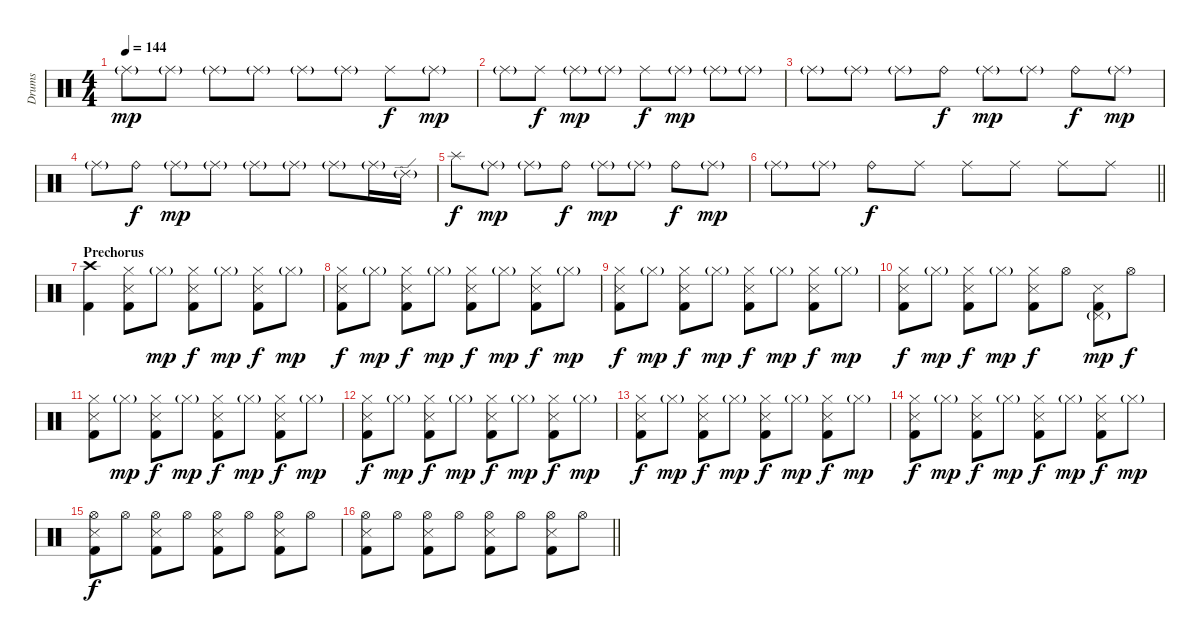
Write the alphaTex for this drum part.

\track ("Drums" "Drums") {instrument percussion}
\staff {score}
\articulation defaults
\ts (4 4)
\tempo 144
\clef neutral
\ks c "Ride (middle)"{g}.8{dy mp} "Ride (middle)"{g}.8 "Ride (middle)"{g}.8 "Ride (middle)"{g}.8 "Ride (middle)"{g}.8 "Ride (middle)"{g}.8 "Ride (middle)".8{dy f} "Ride (middle)"{g}.8{dy mp}
|
"Ride (middle)"{g}.8 "Ride (middle)".8{dy f} "Ride (middle)"{g}.8{dy mp} "Ride (middle)"{g}.8 "Ride (middle)".8{dy f} "Ride (middle)"{g}.8{dy mp} "Ride (middle)"{g}.8 "Ride (middle)"{g}.8 |
"Ride (middle)"{g}.8 "Ride (middle)"{g}.8 "Ride (middle)"{g}.8 "Ride (bell)".8{dy f} "Ride (middle)"{g}.8{dy mp} "Ride (middle)"{g}.8 "Ride (bell)".8{dy f} "Ride (middle)"{g}.8{dy mp} |
"Ride (middle)"{g}.8 "Ride (bell)".8{dy f} "Ride (middle)"{g}.8{dy mp} "Ride (middle)"{g}.8 "Ride (middle)"{g}.8 "Ride (middle)"{g}.8 "Ride (middle)"{g}.8 "Ride (middle)"{g}.16 "Ride (edge) 2"{g}.16 |
"Splash (hit)".8{dy f} "Ride (middle)"{g}.8{dy mp} "Ride (middle)"{g}.8 "Ride (bell)".8{dy f} "Ride (middle)"{g}.8{dy mp} "Ride (middle)"{g}.8 "Ride (bell)".8{dy f} "Ride (middle)"{g}.8{dy mp} |
\barLineRight lightlight "Ride (middle)"{g}.8 "Ride (middle)"{g}.8 "Ride (bell)".8{dy f} "Ride (middle)".8 "Ride (middle)".8 "Ride (middle)".8 "Ride (middle)".8 "Ride (middle)".8
|
\section ("" "Prechorus")
("Crash high (hit)" "Kick (hit) 2").4 ("Hi-Hat (closed)" "Snare (side stick) 3" "Kick (hit) 2").8 "Hi-Hat (closed)"{g}.8{dy mp} ("Hi-Hat (closed)" "Snare (side stick) 3" "Kick (hit) 2").8{dy f} "Hi-Hat (closed)"{g}.8{dy mp} ("Hi-Hat (closed)" "Snare (side stick) 3" "Kick (hit) 2").8{dy f} "Hi-Hat (closed)"{g}.8{dy mp} |
("Hi-Hat (closed)" "Snare (side stick) 3" "Kick (hit) 2").8{dy f} "Hi-Hat (closed)"{g}.8{dy mp} ("Hi-Hat (closed)" "Snare (side stick) 3" "Kick (hit) 2").8{dy f} "Hi-Hat (closed)"{g}.8{dy mp} ("Hi-Hat (closed)" "Snare (side stick) 3" "Kick (hit) 2").8{dy f} "Hi-Hat (closed)"{g}.8{dy mp} ("Hi-Hat (closed)" "Snare (side stick) 3" "Kick (hit) 2").8{dy f} "Hi-Hat (closed)"{g}.8{dy mp} |
("Hi-Hat (closed)" "Snare (side stick) 3" "Kick (hit) 2").8{dy f} "Hi-Hat (closed)"{g}.8{dy mp} ("Hi-Hat (closed)" "Snare (side stick) 3" "Kick (hit) 2").8{dy f} "Hi-Hat (closed)"{g}.8{dy mp} ("Hi-Hat (closed)" "Snare (side stick) 3" "Kick (hit) 2").8{dy f} "Hi-Hat (closed)"{g}.8{dy mp} ("Hi-Hat (closed)" "Snare (side stick) 3" "Kick (hit) 2").8{dy f} "Hi-Hat (closed)"{g}.8{dy mp} |
("Hi-Hat (closed)" "Snare (side stick) 3" "Kick (hit) 2").8{dy f} "Hi-Hat (closed)"{g}.8{dy mp} ("Hi-Hat (closed)" "Snare (side stick) 3" "Kick (hit) 2").8{dy f} "Hi-Hat (closed)"{g}.8{dy mp} ("Hi-Hat (closed)" "Snare (side stick) 3" "Kick (hit) 2").8{dy f} "Hi-Hat (open)".8 ("Pedal Hi-Hat (hit)"{g} "Snare (side stick) 3" "Kick (hit) 2").8{dy mp} "Hi-Hat (open)".8{dy f} |
("Hi-Hat (closed)" "Snare (side stick) 3" "Kick (hit) 2").8 "Hi-Hat (closed)"{g}.8{dy mp} ("Hi-Hat (closed)" "Snare (side stick) 3" "Kick (hit) 2").8{dy f} "Hi-Hat (closed)"{g}.8{dy mp} ("Hi-Hat (closed)" "Snare (side stick) 3" "Kick (hit) 2").8{dy f} "Hi-Hat (closed)"{g}.8{dy mp} ("Hi-Hat (closed)" "Snare (side stick) 3" "Kick (hit) 2").8{dy f} "Hi-Hat (closed)"{g}.8{dy mp} |
("Hi-Hat (closed)" "Snare (side stick) 3" "Kick (hit) 2").8{dy f} "Hi-Hat (closed)"{g}.8{dy mp} ("Hi-Hat (closed)" "Snare (side stick) 3" "Kick (hit) 2").8{dy f} "Hi-Hat (closed)"{g}.8{dy mp} ("Hi-Hat (closed)" "Snare (side stick) 3" "Kick (hit) 2").8{dy f} "Hi-Hat (closed)"{g}.8{dy mp} ("Hi-Hat (closed)" "Snare (side stick) 3" "Kick (hit) 2").8{dy f} "Hi-Hat (closed)"{g}.8{dy mp} |
("Hi-Hat (closed)" "Snare (side stick) 3" "Kick (hit) 2").8{dy f} "Hi-Hat (closed)"{g}.8{dy mp} ("Hi-Hat (closed)" "Snare (side stick) 3" "Kick (hit) 2").8{dy f} "Hi-Hat (closed)"{g}.8{dy mp} ("Hi-Hat (closed)" "Snare (side stick) 3" "Kick (hit) 2").8{dy f} "Hi-Hat (closed)"{g}.8{dy mp} ("Hi-Hat (closed)" "Snare (side stick) 3" "Kick (hit) 2").8{dy f} "Hi-Hat (closed)"{g}.8{dy mp} |
("Hi-Hat (closed)" "Snare (side stick) 3" "Kick (hit) 2").8{dy f} "Hi-Hat (closed)"{g}.8{dy mp} ("Hi-Hat (closed)" "Snare (side stick) 3" "Kick (hit) 2").8{dy f} "Hi-Hat (closed)"{g}.8{dy mp} ("Hi-Hat (closed)" "Snare (side stick) 3" "Kick (hit) 2").8{dy f} "Hi-Hat (closed)"{g}.8{dy mp} ("Hi-Hat (closed)" "Snare (side stick) 3" "Kick (hit) 2").8{dy f} "Hi-Hat (closed)"{g}.8{dy mp} |
("Hi-Hat (open)" "Snare (side stick) 3" "Kick (hit) 2").8{dy f} "Hi-Hat (open)".8 ("Hi-Hat (open)" "Snare (side stick) 3" "Kick (hit) 2").8 "Hi-Hat (open)".8 ("Hi-Hat (open)" "Snare (side stick) 3" "Kick (hit) 2").8 "Hi-Hat (open)".8 ("Hi-Hat (open)" "Snare (side stick) 3" "Kick (hit) 2").8 "Hi-Hat (open)".8 |
\barLineRight lightlight
("Hi-Hat (open)" "Snare (side stick) 3" "Kick (hit) 2").8 "Hi-Hat (open)".8 ("Hi-Hat (open)" "Snare (side stick) 3" "Kick (hit) 2").8 "Hi-Hat (open)".8 ("Hi-Hat (open)" "Snare (side stick) 3" "Kick (hit) 2").8 "Hi-Hat (open)".8 ("Hi-Hat (open)" "Snare (side stick) 3" "Kick (hit) 2").8 "Hi-Hat (open)".8
